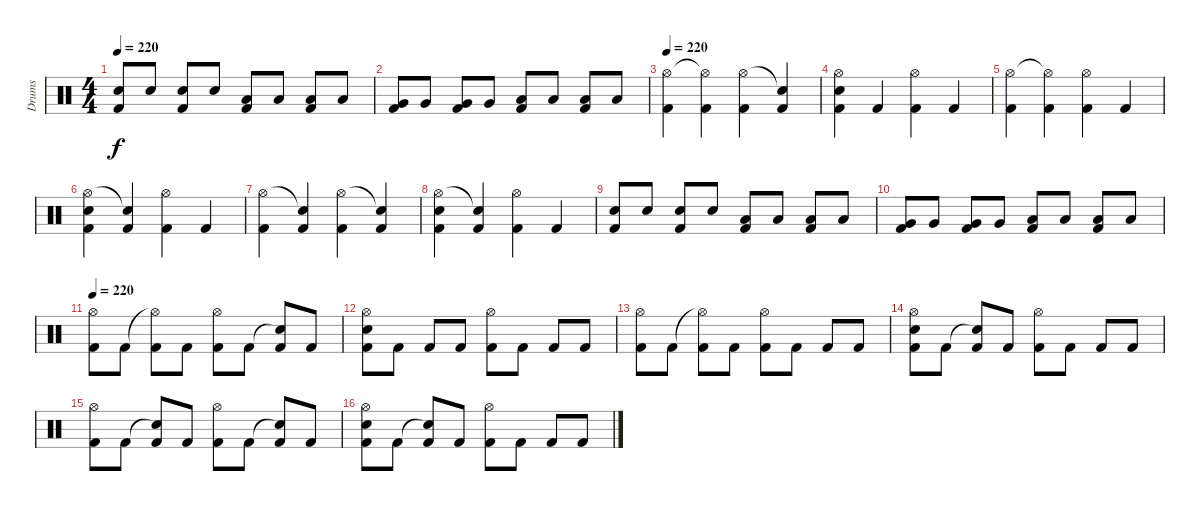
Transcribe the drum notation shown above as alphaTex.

\track ("Drums" "Drums") {instrument percussion}
\staff {score}
\articulation defaults
\ts (4 4)
\tempo 220
\clef neutral
\ks c
("Snare (hit) 2" "Kick (hit) 2").8{dy f} "Snare (hit) 2".8 ("Snare (hit) 2" "Kick (hit) 2").8 "Snare (hit) 2".8 ("Low Tom (hit)" "Kick (hit) 2").8 "Low Tom (hit)".8 ("Low Tom (hit)" "Kick (hit) 2").8 "Low Tom (hit)".8 |
("Very Low Tom (hit)" "Kick (hit) 2").8 "Very Low Tom (hit)".8 ("Very Low Tom (hit)" "Kick (hit) 2").8 "Very Low Tom (hit)".8 ("Low Floor Tom (hit)" "Kick (hit) 2").8 "Low Floor Tom (hit)".8 ("Low Floor Tom (hit)" "Kick (hit) 2").8 "Low Floor Tom (hit)".8 |
\tempo 250
\tempo 220
("Hi-Hat (open)" "Kick (hit) 2").4 ("Hi-Hat (open)"{t} "Kick (hit) 2").4 ("Hi-Hat (open)" "Kick (hit) 2").4 ("Snare (hit)"{t} "Kick (hit) 2").4 |
("Hi-Hat (open)" "Snare (hit) 2" "Kick (hit) 2").4 "Kick (hit) 2".4 ("Hi-Hat (open)" "Kick (hit) 2").4 "Kick (hit) 2".4 |
("Hi-Hat (open)" "Kick (hit) 2").4 ("Hi-Hat (open)"{t} "Kick (hit) 2").4 ("Hi-Hat (open)" "Kick (hit) 2").4 "Kick (hit) 2".4 |
("Hi-Hat (open)" "Snare (hit) 2" "Kick (hit) 2").4 ("Snare (hit)"{t} "Kick (hit) 2").4 ("Hi-Hat (open)" "Kick (hit) 2").4 "Kick (hit) 2".4 |
("Hi-Hat (open)" "Kick (hit) 2").4 ("Snare (hit)"{t} "Kick (hit) 2").4 ("Hi-Hat (open)" "Kick (hit) 2").4 ("Snare (hit)"{t} "Kick (hit) 2").4 |
("Hi-Hat (open)" "Snare (hit) 2" "Kick (hit) 2").4 ("Snare (hit)"{t} "Kick (hit) 2").4 ("Hi-Hat (open)" "Kick (hit) 2").4 "Kick (hit) 2".4 |
("Snare (hit) 2" "Kick (hit) 2").8 "Snare (hit) 2".8 ("Snare (hit) 2" "Kick (hit) 2").8 "Snare (hit) 2".8 ("Low Tom (hit)" "Kick (hit) 2").8 "Low Tom (hit)".8 ("Low Tom (hit)" "Kick (hit) 2").8 "Low Tom (hit)".8 |
("Very Low Tom (hit)" "Kick (hit) 2").8 "Very Low Tom (hit)".8 ("Very Low Tom (hit)" "Kick (hit) 2").8 "Very Low Tom (hit)".8 ("Low Floor Tom (hit)" "Kick (hit) 2").8 "Low Floor Tom (hit)".8 ("Low Floor Tom (hit)" "Kick (hit) 2").8 "Low Floor Tom (hit)".8 |
\tempo 250
\tempo 220
("Hi-Hat (open)" "Kick (hit) 2").8 "Kick (hit) 2".8 ("Hi-Hat (open)"{t} "Kick (hit) 2").8 "Kick (hit) 2".8 ("Hi-Hat (open)" "Kick (hit) 2").8 "Kick (hit) 2".8 ("Snare (hit)"{t} "Kick (hit) 2").8 "Kick (hit) 2".8 |
("Hi-Hat (open)" "Snare (hit) 2" "Kick (hit) 2").8 "Kick (hit) 2".8 "Kick (hit) 2".8 "Kick (hit) 2".8 ("Hi-Hat (open)" "Kick (hit) 2").8 "Kick (hit) 2".8 "Kick (hit) 2".8 "Kick (hit) 2".8 |
("Hi-Hat (open)" "Kick (hit) 2").8 "Kick (hit) 2".8 ("Hi-Hat (open)"{t} "Kick (hit) 2").8 "Kick (hit) 2".8 ("Hi-Hat (open)" "Kick (hit) 2").8 "Kick (hit) 2".8 "Kick (hit) 2".8 "Kick (hit) 2".8 |
("Hi-Hat (open)" "Snare (hit) 2" "Kick (hit) 2").8 "Kick (hit) 2".8 ("Snare (hit)"{t} "Kick (hit) 2").8 "Kick (hit) 2".8 ("Hi-Hat (open)" "Kick (hit) 2").8 "Kick (hit) 2".8 "Kick (hit) 2".8 "Kick (hit) 2".8 |
("Hi-Hat (open)" "Kick (hit) 2").8 "Kick (hit) 2".8 ("Snare (hit)"{t} "Kick (hit) 2").8 "Kick (hit) 2".8 ("Hi-Hat (open)" "Kick (hit) 2").8 "Kick (hit) 2".8 ("Snare (hit)"{t} "Kick (hit) 2").8 "Kick (hit) 2".8 |
("Hi-Hat (open)" "Snare (hit) 2" "Kick (hit) 2").8 "Kick (hit) 2".8 ("Snare (hit)"{t} "Kick (hit) 2").8 "Kick (hit) 2".8 ("Hi-Hat (open)" "Kick (hit) 2").8 "Kick (hit) 2".8 "Kick (hit) 2".8 "Kick (hit) 2".8
